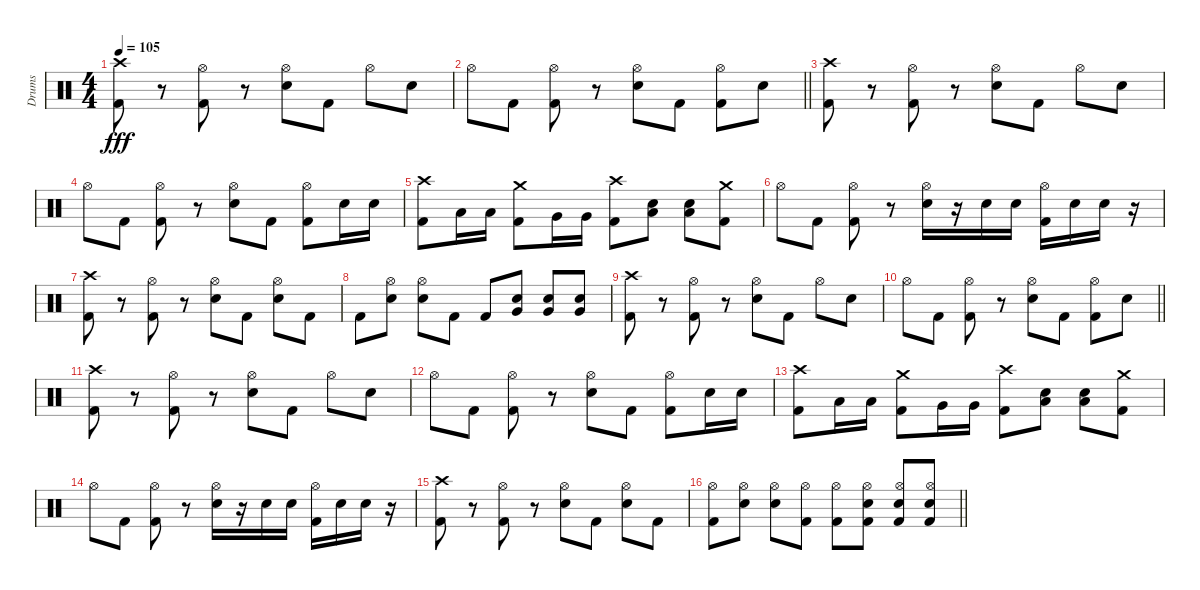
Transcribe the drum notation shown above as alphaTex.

\track ("Drums" "Drums") {instrument percussion}
\staff {score}
\articulation defaults
\ts (4 4)
\tempo 105
\clef neutral
\ks c
("Crash high (hit)" "Kick (hit) 2").8{dy fff} r.8 ("Hi-Hat (open)" "Kick (hit) 2").8 r.8 ("Hi-Hat (open)" "Electric Snare (hit)").8 "Kick (hit) 2".8 "Hi-Hat (open)".8 "Electric Snare (hit)".8 |
\barLineRight lightlight "Hi-Hat (open)".8 "Kick (hit) 2".8
("Hi-Hat (open)" "Kick (hit) 2").8 r.8 ("Hi-Hat (open)" "Electric Snare (hit)").8 "Kick (hit) 2".8 ("Hi-Hat (open)" "Kick (hit) 2").8 "Electric Snare (hit)".8 |
("Crash high (hit)" "Kick (hit) 2").8 r.8 ("Hi-Hat (open)" "Kick (hit) 2").8 r.8 ("Hi-Hat (open)" "Electric Snare (hit)").8 "Kick (hit) 2".8 "Hi-Hat (open)".8 "Electric Snare (hit)".8 |
"Hi-Hat (open)".8 "Kick (hit) 2".8 ("Hi-Hat (open)" "Kick (hit) 2").8 r.8 ("Hi-Hat (open)" "Electric Snare (hit)").8 "Kick (hit) 2".8 ("Hi-Hat (open)" "Kick (hit) 2").8 "Electric Snare (hit)".16 "Electric Snare (hit)".16 |
("Crash high (hit)" "Kick (hit) 2").8 "Low Tom (hit)".16 "Low Tom (hit)".16 ("Crash medium (hit)" "Kick (hit) 2").8 "Very Low Tom (hit)".16 "Very Low Tom (hit)".16 ("Crash high (hit)" "Kick (hit) 2").8 ("Electric Snare (hit)" "Low Floor Tom (hit)").8 ("Electric Snare (hit)" "Low Floor Tom (hit)").8 ("Crash medium (hit)" "Kick (hit) 2").8 |
"Hi-Hat (open)".8 "Kick (hit) 2".8 ("Hi-Hat (open)" "Kick (hit) 2").8 r.8 ("Hi-Hat (open)" "Electric Snare (hit)").16 r.16 "Electric Snare (hit)".16 "Electric Snare (hit)".16 ("Hi-Hat (open)" "Kick (hit) 2").16 "Electric Snare (hit)".16 "Electric Snare (hit)".16 r.16 |
("Crash high (hit)" "Kick (hit) 2").8 r.8 ("Hi-Hat (open)" "Kick (hit) 2").8 r.8 ("Hi-Hat (open)" "Electric Snare (hit)").8 "Kick (hit) 2".8 ("Hi-Hat (open)" "Electric Snare (hit)").8 "Kick (hit) 2".8 |
"Kick (hit) 2".8 ("Hi-Hat (open)" "Electric Snare (hit)").8 ("Hi-Hat (open)" "Electric Snare (hit)").8 "Kick (hit) 2".8 "Kick (hit) 2".8 ("Very Low Tom (hit)" "Electric Snare (hit)").8 ("Very Low Tom (hit)" "Electric Snare (hit)").8 ("Very Low Tom (hit)" "Electric Snare (hit)").8 |
("Crash high (hit)" "Kick (hit) 2").8 r.8 ("Hi-Hat (open)" "Kick (hit) 2").8 r.8 ("Hi-Hat (open)" "Electric Snare (hit)").8 "Kick (hit) 2".8 "Hi-Hat (open)".8 "Electric Snare (hit)".8 |
\barLineRight lightlight "Hi-Hat (open)".8 "Kick (hit) 2".8
("Hi-Hat (open)" "Kick (hit) 2").8 r.8 ("Hi-Hat (open)" "Electric Snare (hit)").8 "Kick (hit) 2".8 ("Hi-Hat (open)" "Kick (hit) 2").8 "Electric Snare (hit)".8 |
("Crash high (hit)" "Kick (hit) 2").8 r.8 ("Hi-Hat (open)" "Kick (hit) 2").8 r.8 ("Hi-Hat (open)" "Electric Snare (hit)").8 "Kick (hit) 2".8 "Hi-Hat (open)".8 "Electric Snare (hit)".8 |
"Hi-Hat (open)".8 "Kick (hit) 2".8 ("Hi-Hat (open)" "Kick (hit) 2").8 r.8 ("Hi-Hat (open)" "Electric Snare (hit)").8 "Kick (hit) 2".8 ("Hi-Hat (open)" "Kick (hit) 2").8 "Electric Snare (hit)".16 "Electric Snare (hit)".16 |
("Crash high (hit)" "Kick (hit) 2").8 "Low Tom (hit)".16 "Low Tom (hit)".16 ("Crash medium (hit)" "Kick (hit) 2").8 "Very Low Tom (hit)".16 "Very Low Tom (hit)".16 ("Crash high (hit)" "Kick (hit) 2").8 ("Electric Snare (hit)" "Low Floor Tom (hit)").8 ("Electric Snare (hit)" "Low Floor Tom (hit)").8 ("Crash medium (hit)" "Kick (hit) 2").8 |
"Hi-Hat (open)".8 "Kick (hit) 2".8 ("Hi-Hat (open)" "Kick (hit) 2").8 r.8 ("Hi-Hat (open)" "Electric Snare (hit)").16 r.16 "Electric Snare (hit)".16 "Electric Snare (hit)".16 ("Hi-Hat (open)" "Kick (hit) 2").16 "Electric Snare (hit)".16 "Electric Snare (hit)".16 r.16 |
("Crash high (hit)" "Kick (hit) 2").8 r.8 ("Hi-Hat (open)" "Kick (hit) 2").8 r.8 ("Hi-Hat (open)" "Electric Snare (hit)").8 "Kick (hit) 2".8 ("Hi-Hat (open)" "Electric Snare (hit)").8 "Kick (hit) 2".8 |
\barLineRight lightlight
("Hi-Hat (open)" "Kick (hit) 2").8 ("Hi-Hat (open)" "Electric Snare (hit)").8 ("Hi-Hat (open)" "Electric Snare (hit)").8 ("Hi-Hat (open)" "Kick (hit) 2").8 ("Hi-Hat (open)" "Kick (hit) 2").8 ("Hi-Hat (open)" "Electric Snare (hit)" "Kick (hit) 2").8 ("Hi-Hat (open)" "Electric Snare (hit)" "Kick (hit) 2").8 ("Hi-Hat (open)" "Electric Snare (hit)" "Kick (hit) 2").8
